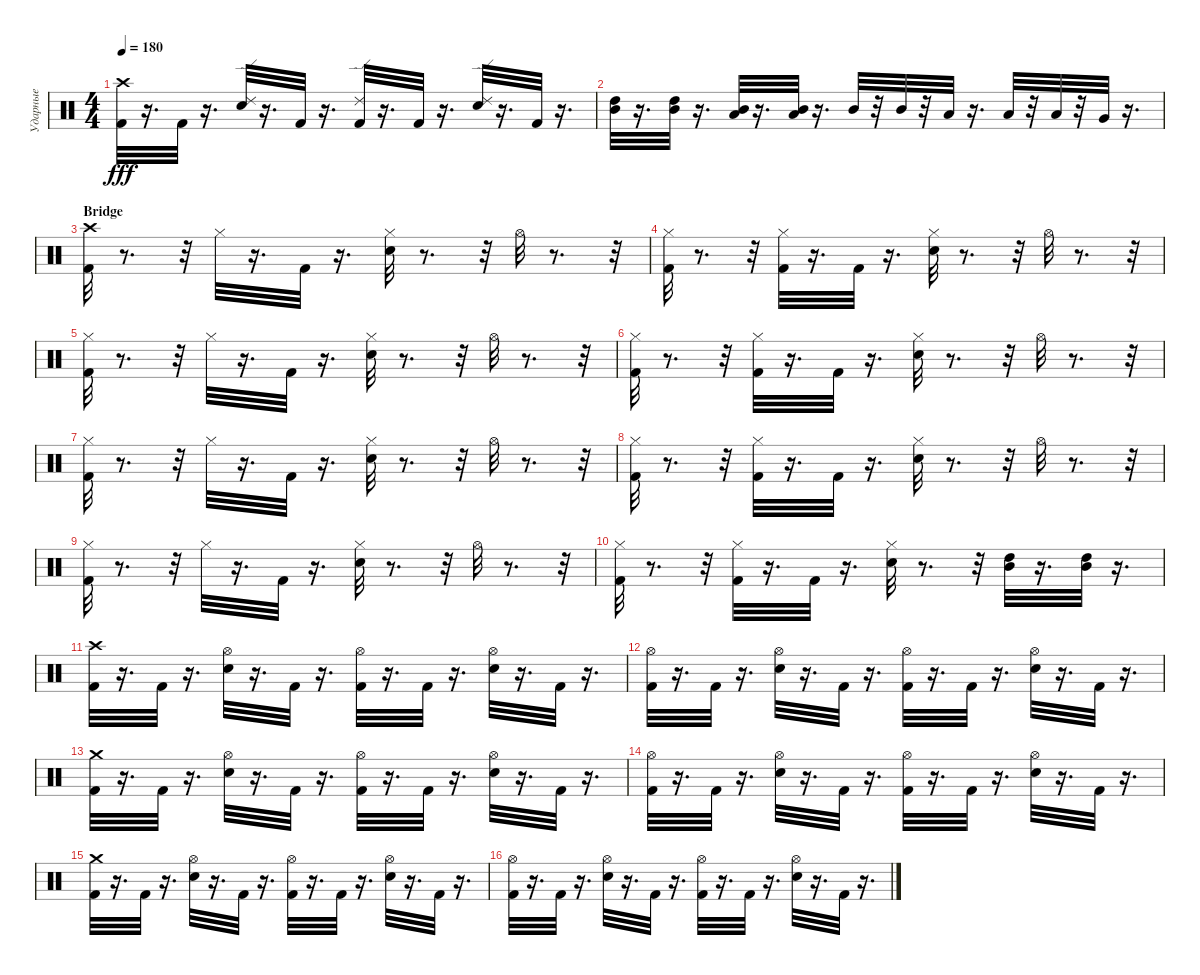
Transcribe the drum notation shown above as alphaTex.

\track ("Ударные" "Ударные") {instrument percussion}
\staff {score}
\articulation defaults
\ts (4 4)
\tempo 180
\clef neutral
\ks c
("Crash high (hit)" "Kick (hit) 2").32{dy fff} r.16{d} "Kick (hit) 2".32 r.16{d} ("Ride (edge) 2" "Snare (hit) 2").32 r.16{d} "Kick (hit) 2".32 r.16{d} ("Kick (hit) 2" "Ride (edge) 2").32 r.16{d} "Kick (hit) 2".32 r.16{d} ("Ride (edge) 2" "Snare (hit) 2").32 r.16{d} "Kick (hit) 2".32 r.16{d} |
("High Tom (hit)" "Mid Tom (hit)").32 r.16{d} ("High Tom (hit)" "Mid Tom (hit)").32 r.16{d} ("Low Tom (hit)" "Mid Tom (hit)").32 r.16{d} ("Low Tom (hit)" "Mid Tom (hit)").32 r.16{d} "Mid Tom (hit)".32 r.32 "Mid Tom (hit)".32 r.32 "Low Tom (hit)".32 r.16{d} "Low Tom (hit)".32 r.32 "Low Tom (hit)".32 r.32 "Very Low Tom (hit)".32 r.16{d} |
\section ("" "Bridge")
("Crash high (hit)" "Kick (hit) 2").32 r.8{d} r.32 "Hi-Hat (closed)".32 r.16{d} "Kick (hit) 2".32 r.16{d} ("Snare (hit) 2" "Hi-Hat (closed)").32 r.8{d} r.32 "Hi-Hat (open)".32 r.8{d} r.32 |
("Kick (hit) 2" "Hi-Hat (closed)").32 r.8{d} r.32 ("Hi-Hat (closed)" "Kick (hit) 2").32 r.16{d} "Kick (hit) 2".32 r.16{d} ("Snare (hit) 2" "Hi-Hat (closed)").32 r.8{d} r.32 "Hi-Hat (open)".32 r.8{d} r.32 |
("Hi-Hat (closed)" "Kick (hit) 2").32 r.8{d} r.32 "Hi-Hat (closed)".32 r.16{d} "Kick (hit) 2".32 r.16{d} ("Snare (hit) 2" "Hi-Hat (closed)").32 r.8{d} r.32 "Hi-Hat (open)".32 r.8{d} r.32 |
("Hi-Hat (closed)" "Kick (hit) 2").32 r.8{d} r.32 ("Hi-Hat (closed)" "Kick (hit) 2").32 r.16{d} "Kick (hit) 2".32 r.16{d} ("Hi-Hat (closed)" "Snare (hit) 2").32 r.8{d} r.32 "Hi-Hat (open)".32 r.8{d} r.32 |
("Kick (hit) 2" "Hi-Hat (closed)").32 r.8{d} r.32 "Hi-Hat (closed)".32 r.16{d} "Kick (hit) 2".32 r.16{d} ("Snare (hit) 2" "Hi-Hat (closed)").32 r.8{d} r.32 "Hi-Hat (open)".32 r.8{d} r.32 |
("Kick (hit) 2" "Hi-Hat (closed)").32 r.8{d} r.32 ("Hi-Hat (closed)" "Kick (hit) 2").32 r.16{d} "Kick (hit) 2".32 r.16{d} ("Hi-Hat (closed)" "Snare (hit) 2").32 r.8{d} r.32 "Hi-Hat (open)".32 r.8{d} r.32 |
("Kick (hit) 2" "Hi-Hat (closed)").32 r.8{d} r.32 "Hi-Hat (closed)".32 r.16{d} "Kick (hit) 2".32 r.16{d} ("Snare (hit) 2" "Hi-Hat (closed)").32 r.8{d} r.32 "Hi-Hat (open)".32 r.8{d} r.32 |
("Hi-Hat (closed)" "Kick (hit) 2").32 r.8{d} r.32 ("Kick (hit) 2" "Hi-Hat (closed)").32 r.16{d} "Kick (hit) 2".32 r.16{d} ("Hi-Hat (closed)" "Snare (hit) 2").32 r.8{d} r.32 ("High Tom (hit)" "Mid Tom (hit)").32 r.16{d} ("Mid Tom (hit)" "High Tom (hit)").32 r.16{d} |
("Kick (hit) 2" "Crash high (hit)").32 r.16{d} "Kick (hit) 2".32 r.16{d} ("Snare (hit) 2" "Hi-Hat (open)").32 r.16{d} "Kick (hit) 2".32 r.16{d} ("Hi-Hat (open)" "Kick (hit) 2").32 r.16{d} "Kick (hit) 2".32 r.16{d} ("Hi-Hat (open)" "Snare (hit) 2").32 r.16{d} "Kick (hit) 2".32 r.16{d} |
("Kick (hit) 2" "Hi-Hat (open)").32 r.16{d} "Kick (hit) 2".32 r.16{d} ("Hi-Hat (open)" "Snare (hit) 2").32 r.16{d} "Kick (hit) 2".32 r.16{d} ("Kick (hit) 2" "Hi-Hat (open)").32 r.16{d} "Kick (hit) 2".32 r.16{d} ("Hi-Hat (open)" "Snare (hit) 2").32 r.16{d} "Kick (hit) 2".32 r.16{d} |
("Crash medium (hit)" "Kick (hit) 2").32 r.16{d} "Kick (hit) 2".32 r.16{d} ("Snare (hit) 2" "Hi-Hat (open)").32 r.16{d} "Kick (hit) 2".32 r.16{d} ("Kick (hit) 2" "Hi-Hat (open)").32 r.16{d} "Kick (hit) 2".32 r.16{d} ("Snare (hit) 2" "Hi-Hat (open)").32 r.16{d} "Kick (hit) 2".32 r.16{d} |
("Kick (hit) 2" "Hi-Hat (open)").32 r.16{d} "Kick (hit) 2".32 r.16{d} ("Snare (hit) 2" "Hi-Hat (open)").32 r.16{d} "Kick (hit) 2".32 r.16{d} ("Kick (hit) 2" "Hi-Hat (open)").32 r.16{d} "Kick (hit) 2".32 r.16{d} ("Snare (hit) 2" "Hi-Hat (open)").32 r.16{d} "Kick (hit) 2".32 r.16{d} |
("Kick (hit) 2" "Crash medium (hit)").32 r.16{d} "Kick (hit) 2".32 r.16{d} ("Hi-Hat (open)" "Snare (hit) 2").32 r.16{d} "Kick (hit) 2".32 r.16{d} ("Hi-Hat (open)" "Kick (hit) 2").32 r.16{d} "Kick (hit) 2".32 r.16{d} ("Snare (hit) 2" "Hi-Hat (open)").32 r.16{d} "Kick (hit) 2".32 r.16{d} |
("Kick (hit) 2" "Hi-Hat (open)").32 r.16{d} "Kick (hit) 2".32 r.16{d} ("Hi-Hat (open)" "Snare (hit) 2").32 r.16{d} "Kick (hit) 2".32 r.16{d} ("Kick (hit) 2" "Hi-Hat (open)").32 r.16{d} "Kick (hit) 2".32 r.16{d} ("Hi-Hat (open)" "Snare (hit) 2").32 r.16{d} "Kick (hit) 2".32 r.16{d}
